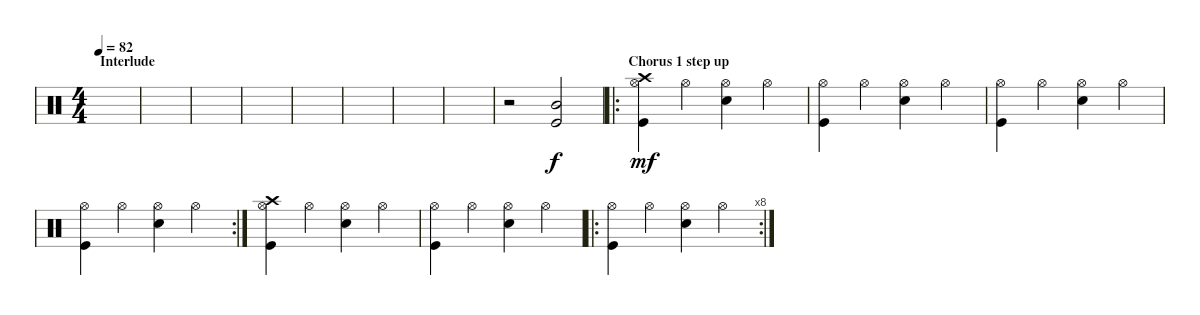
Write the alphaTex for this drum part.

\defaultSystemsLayout 4
\bracketExtendMode groupsimilarinstruments
\singleTrackTrackNamePolicy hidden
\multiTrackTrackNamePolicy hidden
\firstSystemTrackNameOrientation horizontal
\otherSystemsTrackNameOrientation horizontal
\defaultBarNumberDisplay Hide
\track ("Drumkit" "Drums") {instrument percussion}
\staff {score}
\articulation defaults
\ts (4 4)
\section ("" "Interlude")
\tempo 82
\clef neutral
\scale
0.25
\ks c
|
\scale
0.25 |
\scale
0.25 |
\scale
0.25 |
\scale
0.25 |
\scale
0.25 |
\scale
0.25 |
\scale
0.25 |
\scale
0.237288 r.2 ("Kick (hit)" "Mid Tom (hit)").2 |
\ro
\section ("" "Chorus 1 step up")
\scale
0.288136 ("Hi-Hat (open)" "Kick (hit)" "Crash high (hit)").4{dy mf} "Hi-Hat (open)".4 ("Hi-Hat (open)" "Snare (hit) 2").4 "Hi-Hat (open)".4 |
\scale
0.237288 ("Hi-Hat (open)" "Kick (hit)").4 "Hi-Hat (open)".4 ("Hi-Hat (open)" "Snare (hit) 2").4 "Hi-Hat (open)".4 |
\scale
0.237288 ("Hi-Hat (open)" "Kick (hit)").4 "Hi-Hat (open)".4 ("Hi-Hat (open)" "Snare (hit) 2").4 "Hi-Hat (open)".4 |
\rc 2
\scale
0.25 ("Hi-Hat (open)" "Kick (hit)").4 "Hi-Hat (open)".4 ("Hi-Hat (open)" "Snare (hit) 2").4 "Hi-Hat (open)".4 |
\scale
0.225806 ("Hi-Hat (open)" "Kick (hit)" "Crash high (hit)").4 "Hi-Hat (open)".4 ("Hi-Hat (open)" "Snare (hit) 2").4 "Hi-Hat (open)".4 |
\scale
0.225806 ("Hi-Hat (open)" "Kick (hit)").4 "Hi-Hat (open)".4 ("Hi-Hat (open)" "Snare (hit) 2").4 "Hi-Hat (open)".4 |
\ro
\rc 8
\scale
0.298387 ("Hi-Hat (open)" "Kick (hit)").4 "Hi-Hat (open)".4 ("Hi-Hat (open)" "Snare (hit) 2").4 "Hi-Hat (open)".4
